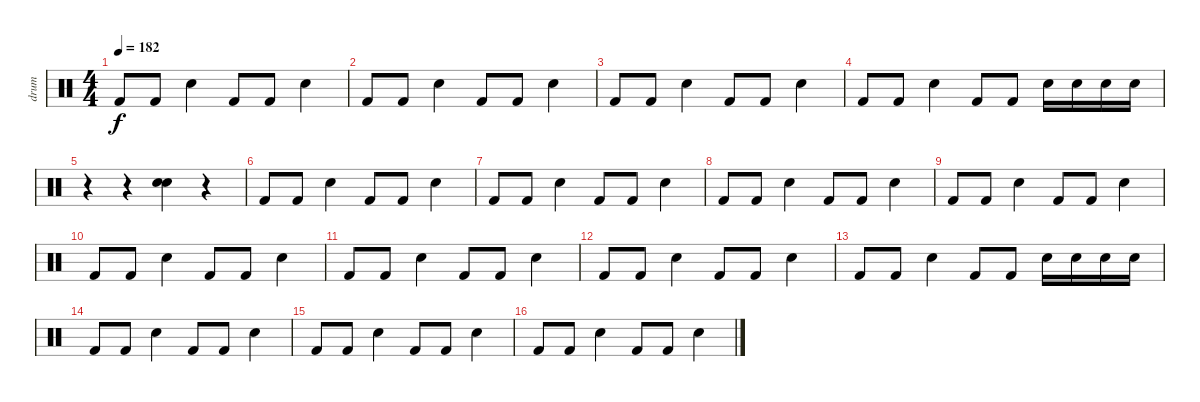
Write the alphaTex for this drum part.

\track ("drum" "drum") {instrument percussion}
\staff {score}
\articulation defaults
\ts (4 4)
\tempo 182
\clef neutral
\ks c "Kick (hit) 2".8{dy f} "Kick (hit) 2".8 "Electric Snare (hit)".4 "Kick (hit) 2".8 "Kick (hit) 2".8 "Electric Snare (hit)".4
|
"Kick (hit) 2".8 "Kick (hit) 2".8 "Electric Snare (hit)".4 "Kick (hit) 2".8 "Kick (hit) 2".8 "Electric Snare (hit)".4 |
"Kick (hit) 2".8 "Kick (hit) 2".8 "Electric Snare (hit)".4 "Kick (hit) 2".8 "Kick (hit) 2".8 "Electric Snare (hit)".4 |
"Kick (hit) 2".8 "Kick (hit) 2".8 "Electric Snare (hit)".4 "Kick (hit) 2".8 "Kick (hit) 2".8 "Electric Snare (hit)".16 "Electric Snare (hit)".16 "Electric Snare (hit)".16 "Electric Snare (hit)".16 |
r.4 r.4 ("Electric Snare (hit)" "Electric Snare (hit)").4 r.4 |
"Kick (hit) 2".8 "Kick (hit) 2".8 "Electric Snare (hit)".4 "Kick (hit) 2".8 "Kick (hit) 2".8 "Electric Snare (hit)".4 |
"Kick (hit) 2".8 "Kick (hit) 2".8 "Electric Snare (hit)".4 "Kick (hit) 2".8 "Kick (hit) 2".8 "Electric Snare (hit)".4 |
"Kick (hit) 2".8 "Kick (hit) 2".8 "Electric Snare (hit)".4 "Kick (hit) 2".8 "Kick (hit) 2".8 "Electric Snare (hit)".4 |
"Kick (hit) 2".8 "Kick (hit) 2".8 "Electric Snare (hit)".4 "Kick (hit) 2".8 "Kick (hit) 2".8 "Electric Snare (hit)".4 |
"Kick (hit) 2".8 "Kick (hit) 2".8 "Electric Snare (hit)".4 "Kick (hit) 2".8 "Kick (hit) 2".8 "Electric Snare (hit)".4 |
"Kick (hit) 2".8 "Kick (hit) 2".8 "Electric Snare (hit)".4 "Kick (hit) 2".8 "Kick (hit) 2".8 "Electric Snare (hit)".4 |
"Kick (hit) 2".8 "Kick (hit) 2".8 "Electric Snare (hit)".4 "Kick (hit) 2".8 "Kick (hit) 2".8 "Electric Snare (hit)".4 |
"Kick (hit) 2".8 "Kick (hit) 2".8 "Electric Snare (hit)".4 "Kick (hit) 2".8 "Kick (hit) 2".8 "Electric Snare (hit)".16 "Electric Snare (hit)".16 "Electric Snare (hit)".16 "Electric Snare (hit)".16 |
"Kick (hit) 2".8 "Kick (hit) 2".8 "Electric Snare (hit)".4 "Kick (hit) 2".8 "Kick (hit) 2".8 "Electric Snare (hit)".4 |
"Kick (hit) 2".8 "Kick (hit) 2".8 "Electric Snare (hit)".4 "Kick (hit) 2".8 "Kick (hit) 2".8 "Electric Snare (hit)".4 |
"Kick (hit) 2".8 "Kick (hit) 2".8 "Electric Snare (hit)".4 "Kick (hit) 2".8 "Kick (hit) 2".8 "Electric Snare (hit)".4
